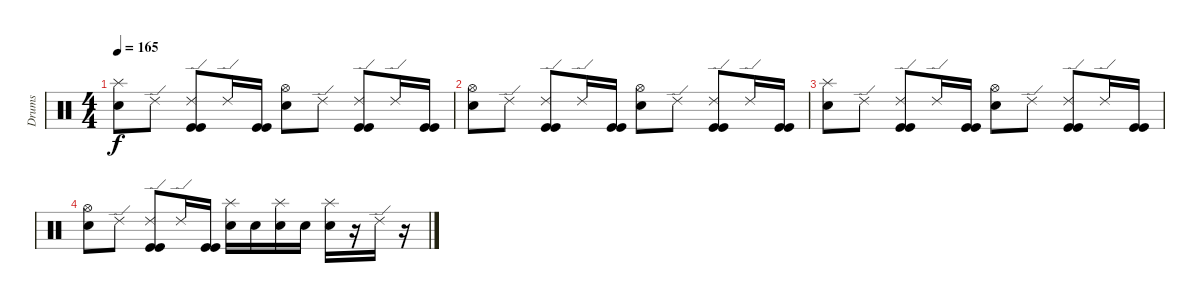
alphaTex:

\track ("Drums" "Drums") {instrument percussion}
\staff {score}
\articulation defaults
\ts (4 4)
\tempo 165
\clef neutral
\ks c
("Splash (hit)" "Snare (hit) 2").8{dy f volume 8} "Ride (edge) 2".8 ("Ride (edge) 2" "Kick (hit)" "Kick (hit)").8 "Ride (edge) 2".16 ("Kick (hit)" "Kick (hit)").16 ("Hi-Hat (open)" "Snare (hit) 2").8 "Ride (edge) 2".8 ("Ride (edge) 2" "Kick (hit)" "Kick (hit)").8 "Ride (edge) 2".16 ("Kick (hit)" "Kick (hit)").16 |
("Hi-Hat (open)" "Snare (hit) 2").8 "Ride (edge) 2".8 ("Ride (edge) 2" "Kick (hit)" "Kick (hit)").8 "Ride (edge) 2".16 ("Kick (hit)" "Kick (hit)").16 ("Hi-Hat (open)" "Snare (hit) 2").8 "Ride (edge) 2".8 ("Ride (edge) 2" "Kick (hit)" "Kick (hit)").8 "Ride (edge) 2".16 ("Kick (hit)" "Kick (hit)").16 |
("Splash (hit)" "Snare (hit) 2").8{volume 0} "Ride (edge) 2".8 ("Ride (edge) 2" "Kick (hit)" "Kick (hit)").8 "Ride (edge) 2".16 ("Kick (hit)" "Kick (hit)").16 ("Hi-Hat (open)" "Snare (hit) 2").8 "Ride (edge) 2".8 ("Ride (edge) 2" "Kick (hit)" "Kick (hit)").8 "Ride (edge) 2".16 ("Kick (hit)" "Kick (hit)").16 |
("Hi-Hat (open)" "Snare (hit) 2").8 "Ride (edge) 2".8 ("Ride (edge) 2" "Kick (hit)" "Kick (hit)").8 "Ride (edge) 2".16 ("Kick (hit)" "Kick (hit)").16 ("Splash (hit)" "Snare (hit) 2").16 "Snare (hit) 2".16 ("Splash (hit)" "Snare (hit) 2").16 "Snare (hit) 2".16 ("Splash (hit)" "Snare (hit) 2").16 r.16 "Ride (edge) 2".16 r.16
